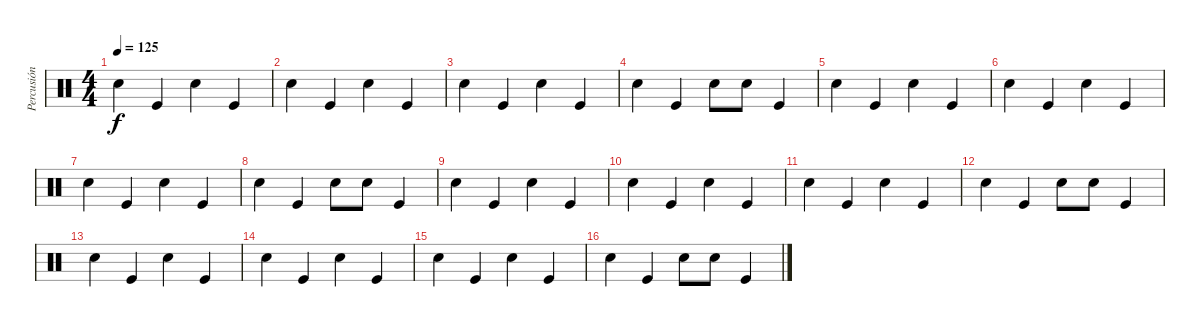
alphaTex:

\track ("Percusión" "Percusión") {instrument percussion}
\staff {score}
\articulation defaults
\ts (4 4)
\tempo 125
\clef neutral
\ks c "Snare (hit) 2".4{dy f} "Kick (hit)".4 "Snare (hit) 2".4 "Kick (hit)".4
|
"Snare (hit) 2".4 "Kick (hit)".4 "Snare (hit) 2".4 "Kick (hit)".4 |
"Snare (hit) 2".4 "Kick (hit)".4 "Snare (hit) 2".4 "Kick (hit)".4 |
"Snare (hit) 2".4 "Kick (hit)".4 "Snare (hit) 2".8 "Snare (hit) 2".8 "Kick (hit)".4 |
"Snare (hit) 2".4 "Kick (hit)".4 "Snare (hit) 2".4 "Kick (hit)".4 |
"Snare (hit) 2".4 "Kick (hit)".4 "Snare (hit) 2".4 "Kick (hit)".4 |
"Snare (hit) 2".4 "Kick (hit)".4 "Snare (hit) 2".4 "Kick (hit)".4 |
"Snare (hit) 2".4 "Kick (hit)".4 "Snare (hit) 2".8 "Snare (hit) 2".8 "Kick (hit)".4 |
"Snare (hit) 2".4 "Kick (hit)".4 "Snare (hit) 2".4 "Kick (hit)".4 |
"Snare (hit) 2".4 "Kick (hit)".4 "Snare (hit) 2".4 "Kick (hit)".4 |
"Snare (hit) 2".4 "Kick (hit)".4 "Snare (hit) 2".4 "Kick (hit)".4 |
"Snare (hit) 2".4 "Kick (hit)".4 "Snare (hit) 2".8 "Snare (hit) 2".8 "Kick (hit)".4 |
"Snare (hit) 2".4 "Kick (hit)".4 "Snare (hit) 2".4 "Kick (hit)".4 |
"Snare (hit) 2".4 "Kick (hit)".4 "Snare (hit) 2".4 "Kick (hit)".4 |
"Snare (hit) 2".4 "Kick (hit)".4 "Snare (hit) 2".4 "Kick (hit)".4 |
"Snare (hit) 2".4 "Kick (hit)".4 "Snare (hit) 2".8 "Snare (hit) 2".8 "Kick (hit)".4
